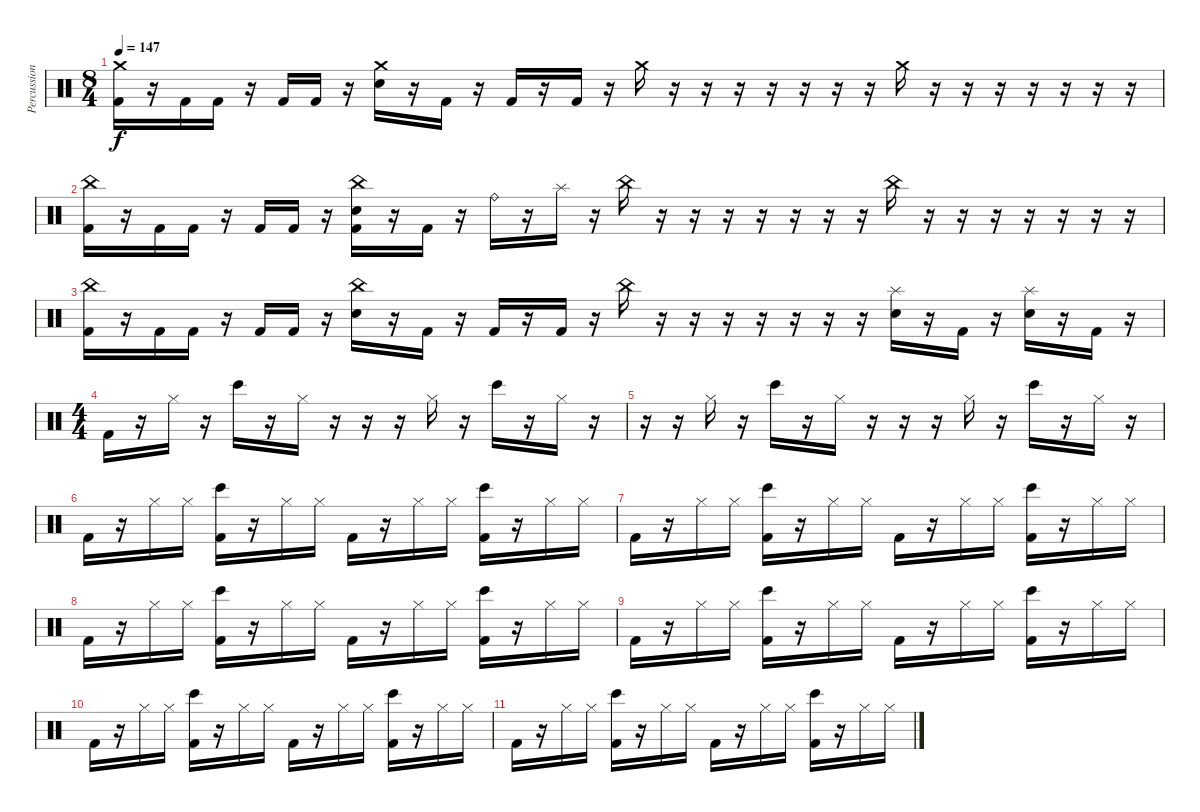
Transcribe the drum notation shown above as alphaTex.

\track ("Percussion" "Percussion") {instrument percussion}
\staff {score}
\articulation defaults
\ts (8 4)
\tempo 147
\clef neutral
\ks c
("Crash medium (hit)" "Kick (hit) 2").16{dy f} r.16 "Kick (hit) 2".16 "Kick (hit) 2".16 r.16 "Kick (hit) 2".16 "Kick (hit) 2".16 r.16 ("Crash medium (hit)" "Electric Snare (hit)").16 r.16 "Kick (hit) 2".16 r.16 "Kick (hit) 2".16 r.16 "Kick (hit) 2".16 r.16 "Crash medium (hit)".16 r.16 r.16 r.16 r.16 r.16 r.16 r.16 "Crash medium (hit)".16 r.16 r.16 r.16 r.16 r.16 r.16 r.16 |
("China (hit)" "Kick (hit) 2").16 r.16 "Kick (hit) 2".16 "Kick (hit) 2".16 r.16 "Kick (hit) 2".16 "Kick (hit) 2".16 r.16 ("China (hit)" "Electric Snare (hit)" "Kick (hit) 2").16 r.16 "Kick (hit) 2".16 r.16 "Ride (bell)".16 r.16 "Splash (hit)".16 r.16 "China (hit)".16 r.16 r.16 r.16 r.16 r.16 r.16 r.16 "China (hit)".16 r.16 r.16 r.16 r.16 r.16 r.16 r.16 |
("China (hit)" "Kick (hit) 2").16 r.16 "Kick (hit) 2".16 "Kick (hit) 2".16 r.16 "Kick (hit) 2".16 "Kick (hit) 2".16 r.16 ("China (hit)" "Electric Snare (hit)").16 r.16 "Kick (hit) 2".16 r.16 "Kick (hit) 2".16 r.16 "Kick (hit) 2".16 r.16 "China (hit)".16 r.16 r.16 r.16 r.16 r.16 r.16 r.16 ("Splash (hit)" "Electric Snare (hit)").16 r.16 "Kick (hit) 2".16 r.16 ("Splash (hit)" "Electric Snare (hit)").16 r.16 "Kick (hit) 2".16 r.16 |
\ts (4 4)
"Kick (hit) 2".16 r.16 "Hi-Hat (closed)".16 r.16 "Bongo High (hit)".16 r.16 "Hi-Hat (closed)".16 r.16 r.16 r.16 "Hi-Hat (closed)".16 r.16 "Bongo High (hit)".16 r.16 "Hi-Hat (closed)".16 r.16 |
r.16 r.16 "Hi-Hat (closed)".16 r.16 "Bongo High (hit)".16 r.16 "Hi-Hat (closed)".16 r.16 r.16 r.16 "Hi-Hat (closed)".16 r.16 "Bongo High (hit)".16 r.16 "Hi-Hat (closed)".16 r.16 |
"Kick (hit) 2".16 r.16 "Hi-Hat (closed)".16 "Hi-Hat (closed)".16 ("Bongo High (hit)" "Kick (hit) 2").16 r.16 "Hi-Hat (closed)".16 "Hi-Hat (closed)".16 "Kick (hit) 2".16 r.16 "Hi-Hat (closed)".16 "Hi-Hat (closed)".16 ("Bongo High (hit)" "Kick (hit) 2").16 r.16 "Hi-Hat (closed)".16 "Hi-Hat (closed)".16 |
"Kick (hit) 2".16 r.16 "Hi-Hat (closed)".16 "Hi-Hat (closed)".16 ("Bongo High (hit)" "Kick (hit) 2").16 r.16 "Hi-Hat (closed)".16 "Hi-Hat (closed)".16 "Kick (hit) 2".16 r.16 "Hi-Hat (closed)".16 "Hi-Hat (closed)".16 ("Bongo High (hit)" "Kick (hit) 2").16 r.16 "Hi-Hat (closed)".16 "Hi-Hat (closed)".16 |
"Kick (hit) 2".16 r.16 "Hi-Hat (closed)".16 "Hi-Hat (closed)".16 ("Bongo High (hit)" "Kick (hit) 2").16 r.16 "Hi-Hat (closed)".16 "Hi-Hat (closed)".16 "Kick (hit) 2".16 r.16 "Hi-Hat (closed)".16 "Hi-Hat (closed)".16 ("Bongo High (hit)" "Kick (hit) 2").16 r.16 "Hi-Hat (closed)".16 "Hi-Hat (closed)".16 |
"Kick (hit) 2".16 r.16 "Hi-Hat (closed)".16 "Hi-Hat (closed)".16 ("Bongo High (hit)" "Kick (hit) 2").16 r.16 "Hi-Hat (closed)".16 "Hi-Hat (closed)".16 "Kick (hit) 2".16 r.16 "Hi-Hat (closed)".16 "Hi-Hat (closed)".16 ("Bongo High (hit)" "Kick (hit) 2").16 r.16 "Hi-Hat (closed)".16 "Hi-Hat (closed)".16 |
"Kick (hit) 2".16 r.16 "Hi-Hat (closed)".16 "Hi-Hat (closed)".16 ("Bongo High (hit)" "Kick (hit) 2").16 r.16 "Hi-Hat (closed)".16 "Hi-Hat (closed)".16 "Kick (hit) 2".16 r.16 "Hi-Hat (closed)".16 "Hi-Hat (closed)".16 ("Bongo High (hit)" "Kick (hit) 2").16 r.16 "Hi-Hat (closed)".16 "Hi-Hat (closed)".16 |
"Kick (hit) 2".16 r.16 "Hi-Hat (closed)".16 "Hi-Hat (closed)".16 ("Bongo High (hit)" "Kick (hit) 2").16 r.16 "Hi-Hat (closed)".16 "Hi-Hat (closed)".16 "Kick (hit) 2".16 r.16 "Hi-Hat (closed)".16 "Hi-Hat (closed)".16 ("Bongo High (hit)" "Kick (hit) 2").16 r.16 "Hi-Hat (closed)".16 "Hi-Hat (closed)".16
